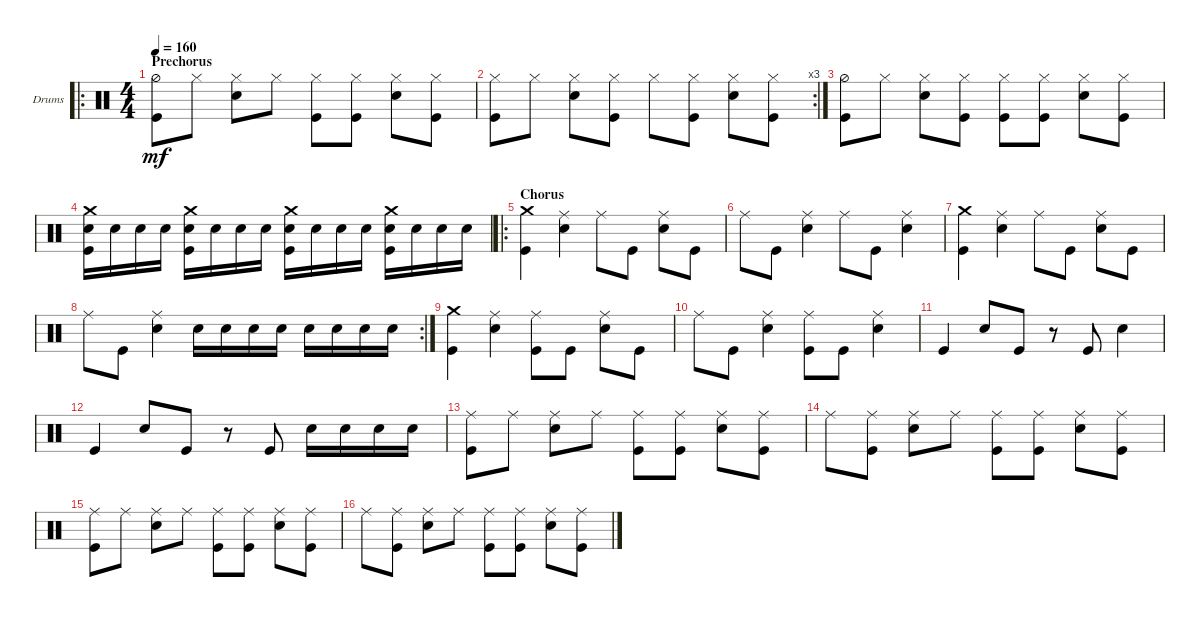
\defaultSystemsLayout 4
\bracketExtendMode groupsimilarinstruments
\firstSystemTrackNameOrientation horizontal
\otherSystemsTrackNameOrientation horizontal
\track ("Drumkit" "Drums") {instrument percussion}
\staff {score}
\articulation defaults
\ro
\ts (4 4)
\section ("" "Prechorus")
\tempo 160
\clef neutral
\scale
0.365591
\ks c
("Kick (hit)" "Hi-Hat (half)").8{dy mf} "Hi-Hat (closed)".8 ("Snare (hit) 2" "Hi-Hat (closed)").8 "Hi-Hat (closed)".8 ("Hi-Hat (closed)" "Kick (hit)").8 ("Kick (hit)" "Hi-Hat (closed)").8 ("Hi-Hat (closed)" "Snare (hit) 2").8 ("Hi-Hat (closed)" "Kick (hit)").8 |
\rc 3
\scale
0.333333 ("Kick (hit)" "Hi-Hat (closed)").8 "Hi-Hat (closed)".8 ("Snare (hit) 2" "Hi-Hat (closed)").8 ("Hi-Hat (closed)" "Kick (hit)").8 "Hi-Hat (closed)".8 ("Kick (hit)" "Hi-Hat (closed)").8 ("Hi-Hat (closed)" "Snare (hit) 2").8 ("Hi-Hat (closed)" "Kick (hit)").8 |
\scale
0.311111 ("Kick (hit)" "Hi-Hat (half)").8 "Hi-Hat (closed)".8 ("Snare (hit) 2" "Hi-Hat (closed)").8 ("Hi-Hat (closed)" "Kick (hit)").8 ("Hi-Hat (closed)" "Kick (hit)").8 ("Kick (hit)" "Hi-Hat (closed)").8 ("Hi-Hat (closed)" "Snare (hit) 2").8 ("Hi-Hat (closed)" "Kick (hit)").8 |
\scale
0.311111 ("Crash medium (hit)" "Kick (hit)" "Snare (hit) 2").16 "Snare (hit) 2".16 "Snare (hit) 2".16 "Snare (hit) 2".16 ("Snare (hit) 2" "Crash medium (hit)" "Kick (hit)").16 "Snare (hit) 2".16 "Snare (hit) 2".16 "Snare (hit) 2".16 ("Snare (hit) 2" "Kick (hit)" "Crash medium (hit)").16 "Snare (hit) 2".16 "Snare (hit) 2".16 "Snare (hit) 2".16 ("Snare (hit) 2" "Crash medium (hit)" "Kick (hit)").16 "Snare (hit) 2".16 "Snare (hit) 2".16 "Snare (hit) 2".16 |
\ro
\section ("" "Chorus")
\scale
0.377778 ("Crash medium (hit)" "Kick (hit)").4 ("Ride (middle)" "Snare (hit) 2").4 "Ride (middle)".8 "Kick (hit)".8 ("Ride (middle)" "Snare (hit) 2").8 "Kick (hit)".8 |
\scale
0.321839 "Ride (middle)".8 "Kick (hit)".8 ("Ride (middle)" "Snare (hit) 2").4 "Ride (middle)".8 "Kick (hit)".8 ("Ride (middle)" "Snare (hit) 2").4 |
\scale
0.321839 ("Crash medium (hit)" "Kick (hit)").4 ("Ride (middle)" "Snare (hit) 2").4 "Ride (middle)".8 "Kick (hit)".8 ("Ride (middle)" "Snare (hit) 2").8 "Kick (hit)".8 |
\rc 2
\scale
0.356322 "Ride (middle)".8 "Kick (hit)".8 ("Ride (middle)" "Snare (hit) 2").4 "Snare (hit) 2".16 "Snare (hit) 2".16 "Snare (hit) 2".16 "Snare (hit) 2".16 "Snare (hit) 2".16 "Snare (hit) 2".16 "Snare (hit) 2".16 "Snare (hit) 2".16 |
\scale
0.333333 ("Crash medium (hit)" "Kick (hit)").4 ("Ride (middle)" "Snare (hit) 2").4 ("Ride (middle)" "Kick (hit)").8 "Kick (hit)".8 ("Ride (middle)" "Snare (hit) 2").8 "Kick (hit)".8 |
\scale
0.333333 "Ride (middle)".8 "Kick (hit)".8 ("Ride (middle)" "Snare (hit) 2").4 ("Ride (middle)" "Kick (hit)").8 "Kick (hit)".8 ("Ride (middle)" "Snare (hit) 2").4 |
\scale
0.333333 "Kick (hit)".4 "Snare (hit) 2".8 "Kick (hit)".8 r.8 "Kick (hit)".8 "Snare (hit) 2".4 |
\scale
0.333333 "Kick (hit)".4 "Snare (hit) 2".8 "Kick (hit)".8 r.8 "Kick (hit)".8 "Snare (hit) 2".16 "Snare (hit) 2".16 "Snare (hit) 2".16 "Snare (hit) 2".16 |
\scale
0.333333 ("Ride (middle)" "Kick (hit)").8 "Ride (middle)".8 ("Ride (middle)" "Snare (hit) 2").8 "Ride (middle)".8 ("Ride (middle)" "Kick (hit)").8 ("Ride (middle)" "Kick (hit)").8 ("Ride (middle)" "Snare (hit) 2").8 ("Ride (middle)" "Kick (hit)").8 |
\scale
0.333333 "Ride (middle)".8 ("Ride (middle)" "Kick (hit)").8 ("Ride (middle)" "Snare (hit) 2").8 "Ride (middle)".8 ("Ride (middle)" "Kick (hit)").8 ("Ride (middle)" "Kick (hit)").8 ("Ride (middle)" "Snare (hit) 2").8 ("Ride (middle)" "Kick (hit)").8 |
\scale
0.311111 ("Ride (middle)" "Kick (hit)").8 "Ride (middle)".8 ("Ride (middle)" "Snare (hit) 2").8 "Ride (middle)".8 ("Ride (middle)" "Kick (hit)").8 ("Ride (middle)" "Kick (hit)").8 ("Ride (middle)" "Snare (hit) 2").8 ("Ride (middle)" "Kick (hit)").8 |
\scale
0.311111 "Ride (middle)".8 ("Ride (middle)" "Kick (hit)").8 ("Ride (middle)" "Snare (hit) 2").8 "Ride (middle)".8 ("Ride (middle)" "Kick (hit)").8 ("Ride (middle)" "Kick (hit)").8 ("Ride (middle)" "Snare (hit) 2").8 ("Ride (middle)" "Kick (hit)").8
